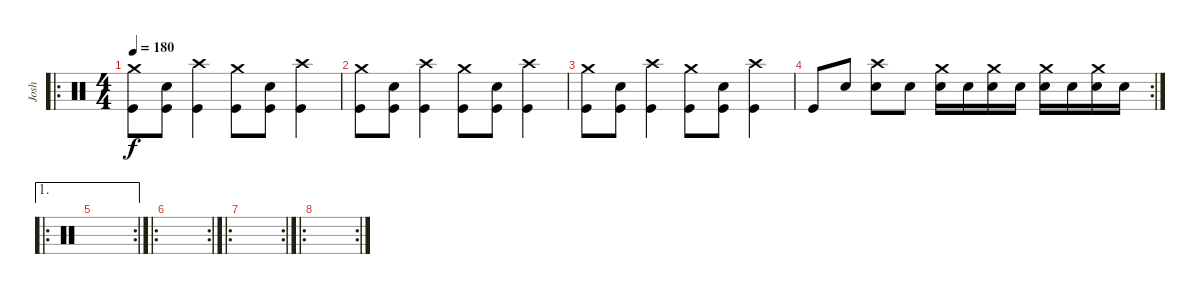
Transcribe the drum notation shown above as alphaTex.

\track ("Josh" "Josh") {instrument percussion}
\staff {score}
\articulation defaults
\ro
\ts (4 4)
\tempo 180
\clef neutral
\ks c
("Kick (hit)" "Crash medium (hit)").8{dy f} ("Kick (hit)" "Electric Snare (hit)").8 ("Kick (hit)" "Crash high (hit)").4 ("Kick (hit)" "Crash medium (hit)").8 ("Kick (hit)" "Electric Snare (hit)").8 ("Kick (hit)" "Crash high (hit)").4 |
("Kick (hit)" "Crash medium (hit)").8 ("Kick (hit)" "Electric Snare (hit)").8 ("Kick (hit)" "Crash high (hit)").4 ("Kick (hit)" "Crash medium (hit)").8 ("Kick (hit)" "Electric Snare (hit)").8 ("Kick (hit)" "Crash high (hit)").4 |
("Kick (hit)" "Crash medium (hit)").8 ("Kick (hit)" "Electric Snare (hit)").8 ("Kick (hit)" "Crash high (hit)").4 ("Kick (hit)" "Crash medium (hit)").8 ("Kick (hit)" "Electric Snare (hit)").8 ("Kick (hit)" "Crash high (hit)").4 |
\rc 2 "Kick (hit)".8 "Electric Snare (hit)".8
("Electric Snare (hit)" "Crash high (hit)").8 "Electric Snare (hit)".8 ("Electric Snare (hit)" "Crash medium (hit)").16 "Electric Snare (hit)".16 ("Electric Snare (hit)" "Crash medium (hit)").16 "Electric Snare (hit)".16 ("Electric Snare (hit)" "Crash medium (hit)").16 "Electric Snare (hit)".16 ("Electric Snare (hit)" "Crash medium (hit)").16 "Electric Snare (hit)".16 |
\ae 1
\ro
\rc 2
|
\ro
\rc 2
|
\ro
\rc 2
|
\ro
\rc 2
